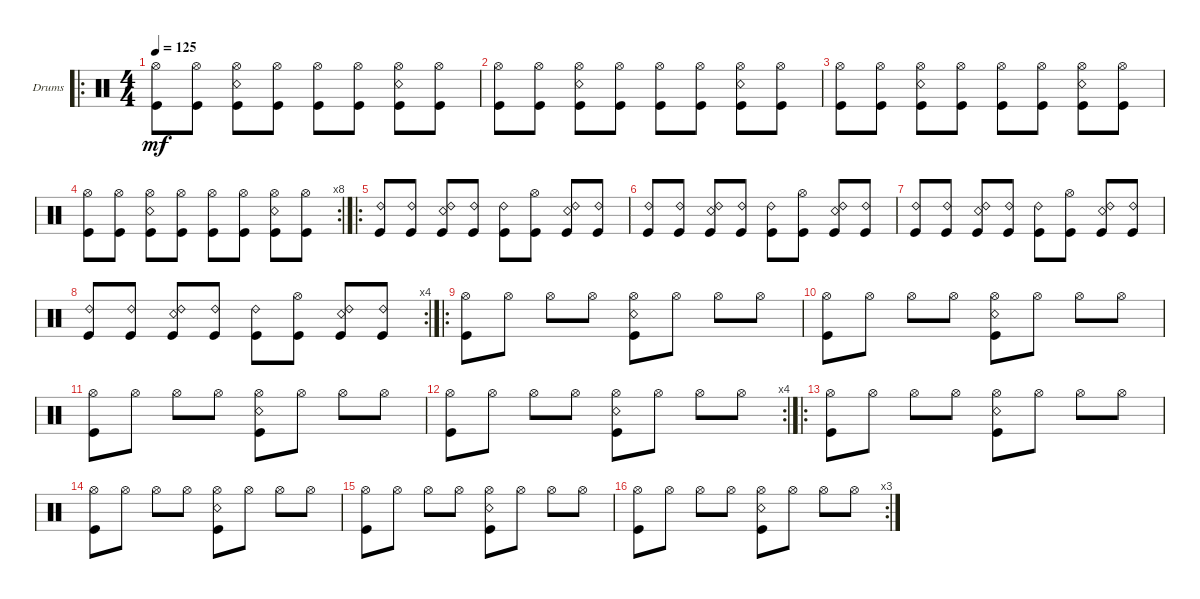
\bracketExtendMode groupsimilarinstruments
\firstSystemTrackNameOrientation horizontal
\otherSystemsTrackNameOrientation horizontal
\track ("Drums" "Drums") {instrument percussion}
\staff {score}
\articulation defaults
\ro
\ts (4 4)
\tempo 125
\clef neutral
\ks c
("Kick (hit)" "Hi-Hat (open)").8{dy mf} ("Kick (hit)" "Hi-Hat (open)").8 ("Kick (hit)" "Hi-Hat (open)" "Snare (rim shot)").8 ("Kick (hit)" "Hi-Hat (open)").8 ("Kick (hit)" "Hi-Hat (open)").8 ("Kick (hit)" "Hi-Hat (open)").8 ("Kick (hit)" "Hi-Hat (open)" "Snare (rim shot)").8 ("Kick (hit)" "Hi-Hat (open)").8 |
("Kick (hit)" "Hi-Hat (open)").8 ("Kick (hit)" "Hi-Hat (open)").8 ("Kick (hit)" "Hi-Hat (open)" "Snare (rim shot)").8 ("Kick (hit)" "Hi-Hat (open)").8 ("Kick (hit)" "Hi-Hat (open)").8 ("Kick (hit)" "Hi-Hat (open)").8 ("Kick (hit)" "Hi-Hat (open)" "Snare (rim shot)").8 ("Kick (hit)" "Hi-Hat (open)").8 |
("Kick (hit)" "Hi-Hat (open)").8 ("Kick (hit)" "Hi-Hat (open)").8 ("Kick (hit)" "Hi-Hat (open)" "Snare (rim shot)").8 ("Kick (hit)" "Hi-Hat (open)").8 ("Kick (hit)" "Hi-Hat (open)").8 ("Kick (hit)" "Hi-Hat (open)").8 ("Kick (hit)" "Hi-Hat (open)" "Snare (rim shot)").8 ("Kick (hit)" "Hi-Hat (open)").8 |
\rc 8
("Kick (hit)" "Hi-Hat (open)").8 ("Kick (hit)" "Hi-Hat (open)").8 ("Kick (hit)" "Hi-Hat (open)" "Snare (rim shot)").8 ("Kick (hit)" "Hi-Hat (open)").8 ("Kick (hit)" "Hi-Hat (open)").8 ("Kick (hit)" "Hi-Hat (open)").8 ("Kick (hit)" "Hi-Hat (open)" "Snare (rim shot)").8 ("Kick (hit)" "Hi-Hat (open)").8 |
\ro
("Kick (hit)" "Ride (bell) 2").8 ("Kick (hit)" "Ride (bell) 2").8 ("Kick (hit)" "Snare (rim shot)" "Ride (bell) 2").8 ("Kick (hit)" "Ride (bell) 2").8 ("Kick (hit)" "Ride (bell) 2").8 ("Kick (hit)" "Hi-Hat (open)").8 ("Kick (hit)" "Snare (rim shot)" "Ride (bell) 2").8 ("Kick (hit)" "Ride (bell) 2").8 |
("Kick (hit)" "Ride (bell) 2").8 ("Kick (hit)" "Ride (bell) 2").8 ("Kick (hit)" "Snare (rim shot)" "Ride (bell) 2").8 ("Kick (hit)" "Ride (bell) 2").8 ("Kick (hit)" "Ride (bell) 2").8 ("Kick (hit)" "Hi-Hat (open)").8 ("Kick (hit)" "Snare (rim shot)" "Ride (bell) 2").8 ("Kick (hit)" "Ride (bell) 2").8 |
("Kick (hit)" "Ride (bell) 2").8 ("Kick (hit)" "Ride (bell) 2").8 ("Kick (hit)" "Snare (rim shot)" "Ride (bell) 2").8 ("Kick (hit)" "Ride (bell) 2").8 ("Kick (hit)" "Ride (bell) 2").8 ("Kick (hit)" "Hi-Hat (open)").8 ("Kick (hit)" "Snare (rim shot)" "Ride (bell) 2").8 ("Kick (hit)" "Ride (bell) 2").8 |
\rc 4
("Kick (hit)" "Ride (bell) 2").8 ("Kick (hit)" "Ride (bell) 2").8 ("Kick (hit)" "Snare (rim shot)" "Ride (bell) 2").8 ("Kick (hit)" "Ride (bell) 2").8 ("Kick (hit)" "Ride (bell) 2").8 ("Kick (hit)" "Hi-Hat (open)").8 ("Kick (hit)" "Snare (rim shot)" "Ride (bell) 2").8 ("Kick (hit)" "Ride (bell) 2").8 |
\ro
("Hi-Hat (open)" "Kick (hit)").8 "Hi-Hat (open)".8 "Hi-Hat (open)".8 "Hi-Hat (open)".8 ("Hi-Hat (open)" "Snare (rim shot)" "Kick (hit)").8 "Hi-Hat (open)".8 "Hi-Hat (open)".8 "Hi-Hat (open)".8 |
("Hi-Hat (open)" "Kick (hit)").8 "Hi-Hat (open)".8 "Hi-Hat (open)".8 "Hi-Hat (open)".8 ("Hi-Hat (open)" "Snare (rim shot)" "Kick (hit)").8 "Hi-Hat (open)".8 "Hi-Hat (open)".8 "Hi-Hat (open)".8 |
("Hi-Hat (open)" "Kick (hit)").8 "Hi-Hat (open)".8 "Hi-Hat (open)".8 "Hi-Hat (open)".8 ("Hi-Hat (open)" "Snare (rim shot)" "Kick (hit)").8 "Hi-Hat (open)".8 "Hi-Hat (open)".8 "Hi-Hat (open)".8 |
\rc 4
("Hi-Hat (open)" "Kick (hit)").8 "Hi-Hat (open)".8 "Hi-Hat (open)".8 "Hi-Hat (open)".8 ("Hi-Hat (open)" "Snare (rim shot)" "Kick (hit)").8 "Hi-Hat (open)".8 "Hi-Hat (open)".8 "Hi-Hat (open)".8 |
\ro
("Hi-Hat (open)" "Kick (hit)").8 "Hi-Hat (open)".8 "Hi-Hat (open)".8 "Hi-Hat (open)".8 ("Hi-Hat (open)" "Snare (rim shot)" "Kick (hit)").8 "Hi-Hat (open)".8 "Hi-Hat (open)".8 "Hi-Hat (open)".8 |
("Hi-Hat (open)" "Kick (hit)").8 "Hi-Hat (open)".8 "Hi-Hat (open)".8 "Hi-Hat (open)".8 ("Hi-Hat (open)" "Snare (rim shot)" "Kick (hit)").8 "Hi-Hat (open)".8 "Hi-Hat (open)".8 "Hi-Hat (open)".8 |
("Hi-Hat (open)" "Kick (hit)").8 "Hi-Hat (open)".8 "Hi-Hat (open)".8 "Hi-Hat (open)".8 ("Hi-Hat (open)" "Snare (rim shot)" "Kick (hit)").8 "Hi-Hat (open)".8 "Hi-Hat (open)".8 "Hi-Hat (open)".8 |
\rc 3
("Hi-Hat (open)" "Kick (hit)").8 "Hi-Hat (open)".8 "Hi-Hat (open)".8 "Hi-Hat (open)".8 ("Hi-Hat (open)" "Snare (rim shot)" "Kick (hit)").8 "Hi-Hat (open)".8 "Hi-Hat (open)".8 "Hi-Hat (open)".8
